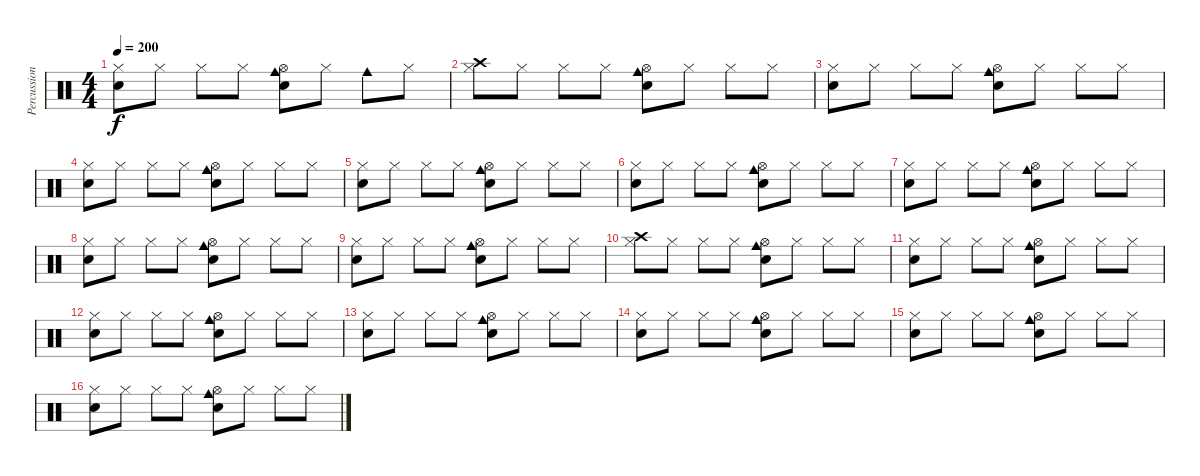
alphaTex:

\track ("Percussion" "Percussion") {instrument percussion}
\staff {score}
\articulation defaults
\ts (4 4)
\tempo 200
\clef neutral
\ks c
("Hi-Hat (closed)" "Electric Snare (hit)").8{dy f} "Hi-Hat (closed)".8 "Hi-Hat (closed)".8 "Hi-Hat (closed)".8 ("Cowbell medium (hit)" "Snare (hit) 2" "Hi-Hat (open)").8 "Hi-Hat (closed)".8 "Cowbell medium (hit)".8 "Hi-Hat (closed)".8 |
("Hi-Hat (closed)" "Crash high (hit)").8 "Hi-Hat (closed)".8 "Hi-Hat (closed)".8 "Hi-Hat (closed)".8 ("Cowbell medium (hit)" "Snare (hit) 2" "Hi-Hat (open)").8 "Hi-Hat (closed)".8 "Hi-Hat (closed)".8 "Hi-Hat (closed)".8 |
("Hi-Hat (closed)" "Electric Snare (hit)").8 "Hi-Hat (closed)".8 "Hi-Hat (closed)".8 "Hi-Hat (closed)".8 ("Cowbell medium (hit)" "Snare (hit) 2" "Hi-Hat (open)").8 "Hi-Hat (closed)".8 "Hi-Hat (closed)".8 "Hi-Hat (closed)".8 |
("Hi-Hat (closed)" "Electric Snare (hit)").8 "Hi-Hat (closed)".8 "Hi-Hat (closed)".8 "Hi-Hat (closed)".8 ("Cowbell medium (hit)" "Snare (hit) 2" "Hi-Hat (open)").8 "Hi-Hat (closed)".8 "Hi-Hat (closed)".8 "Hi-Hat (closed)".8 |
("Hi-Hat (closed)" "Electric Snare (hit)").8 "Hi-Hat (closed)".8 "Hi-Hat (closed)".8 "Hi-Hat (closed)".8 ("Cowbell medium (hit)" "Snare (hit) 2" "Hi-Hat (open)").8 "Hi-Hat (closed)".8 "Hi-Hat (closed)".8 "Hi-Hat (closed)".8 |
("Hi-Hat (closed)" "Electric Snare (hit)").8 "Hi-Hat (closed)".8 "Hi-Hat (closed)".8 "Hi-Hat (closed)".8 ("Cowbell medium (hit)" "Snare (hit) 2" "Hi-Hat (open)").8 "Hi-Hat (closed)".8 "Hi-Hat (closed)".8 "Hi-Hat (closed)".8 |
("Hi-Hat (closed)" "Electric Snare (hit)").8 "Hi-Hat (closed)".8 "Hi-Hat (closed)".8 "Hi-Hat (closed)".8 ("Cowbell medium (hit)" "Snare (hit) 2" "Hi-Hat (open)").8 "Hi-Hat (closed)".8 "Hi-Hat (closed)".8 "Hi-Hat (closed)".8 |
("Hi-Hat (closed)" "Electric Snare (hit)").8 "Hi-Hat (closed)".8 "Hi-Hat (closed)".8 "Hi-Hat (closed)".8 ("Cowbell medium (hit)" "Snare (hit) 2" "Hi-Hat (open)").8 "Hi-Hat (closed)".8 "Hi-Hat (closed)".8 "Hi-Hat (closed)".8 |
("Hi-Hat (closed)" "Electric Snare (hit)").8 "Hi-Hat (closed)".8 "Hi-Hat (closed)".8 "Hi-Hat (closed)".8 ("Cowbell medium (hit)" "Snare (hit) 2" "Hi-Hat (open)").8 "Hi-Hat (closed)".8 "Hi-Hat (closed)".8 "Hi-Hat (closed)".8 |
("Hi-Hat (closed)" "Crash high (hit)").8 "Hi-Hat (closed)".8 "Hi-Hat (closed)".8 "Hi-Hat (closed)".8 ("Cowbell medium (hit)" "Snare (hit) 2" "Hi-Hat (open)").8 "Hi-Hat (closed)".8 "Hi-Hat (closed)".8 "Hi-Hat (closed)".8 |
("Hi-Hat (closed)" "Electric Snare (hit)").8 "Hi-Hat (closed)".8 "Hi-Hat (closed)".8 "Hi-Hat (closed)".8 ("Cowbell medium (hit)" "Snare (hit) 2" "Hi-Hat (open)").8 "Hi-Hat (closed)".8 "Hi-Hat (closed)".8 "Hi-Hat (closed)".8 |
("Hi-Hat (closed)" "Electric Snare (hit)").8 "Hi-Hat (closed)".8 "Hi-Hat (closed)".8 "Hi-Hat (closed)".8 ("Cowbell medium (hit)" "Snare (hit) 2" "Hi-Hat (open)").8 "Hi-Hat (closed)".8 "Hi-Hat (closed)".8 "Hi-Hat (closed)".8 |
("Hi-Hat (closed)" "Electric Snare (hit)").8 "Hi-Hat (closed)".8 "Hi-Hat (closed)".8 "Hi-Hat (closed)".8 ("Cowbell medium (hit)" "Snare (hit) 2" "Hi-Hat (open)").8 "Hi-Hat (closed)".8 "Hi-Hat (closed)".8 "Hi-Hat (closed)".8 |
("Hi-Hat (closed)" "Electric Snare (hit)").8 "Hi-Hat (closed)".8 "Hi-Hat (closed)".8 "Hi-Hat (closed)".8 ("Cowbell medium (hit)" "Snare (hit) 2" "Hi-Hat (open)").8 "Hi-Hat (closed)".8 "Hi-Hat (closed)".8 "Hi-Hat (closed)".8 |
("Hi-Hat (closed)" "Electric Snare (hit)").8 "Hi-Hat (closed)".8 "Hi-Hat (closed)".8 "Hi-Hat (closed)".8 ("Cowbell medium (hit)" "Snare (hit) 2" "Hi-Hat (open)").8 "Hi-Hat (closed)".8 "Hi-Hat (closed)".8 "Hi-Hat (closed)".8 |
("Hi-Hat (closed)" "Electric Snare (hit)").8 "Hi-Hat (closed)".8 "Hi-Hat (closed)".8 "Hi-Hat (closed)".8 ("Cowbell medium (hit)" "Snare (hit) 2" "Hi-Hat (open)").8 "Hi-Hat (closed)".8 "Hi-Hat (closed)".8 "Hi-Hat (closed)".8
